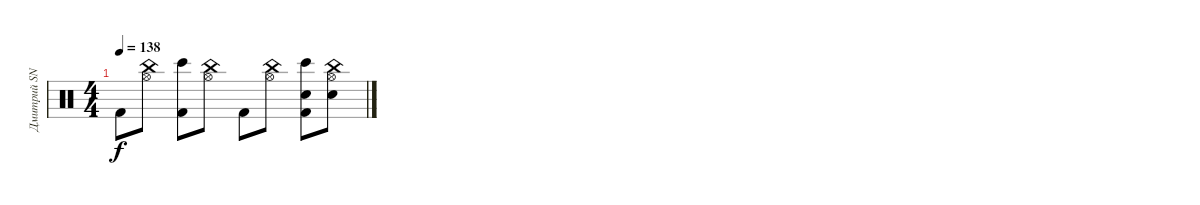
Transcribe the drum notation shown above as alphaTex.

\track ("Дмитрий SNAKE Хакимов (ударные)" "Дмитрий SN") {instrument percussion}
\staff {score}
\articulation defaults
\ts (4 4)
\tempo 138
\clef neutral
\ks c "Kick (hit) 2".8{dy f}
("China (hit)" "Hi-Hat (open)").8 ("Bongo High (hit)" "Kick (hit) 2").8 ("China (hit)" "Hi-Hat (open)").8 "Kick (hit) 2".8 ("China (hit)" "Hi-Hat (open)").8 ("Bongo High (hit)" "Electric Snare (hit)" "Kick (hit) 2").8 ("China (hit)" "Hi-Hat (open)" "Electric Snare (hit)").8
